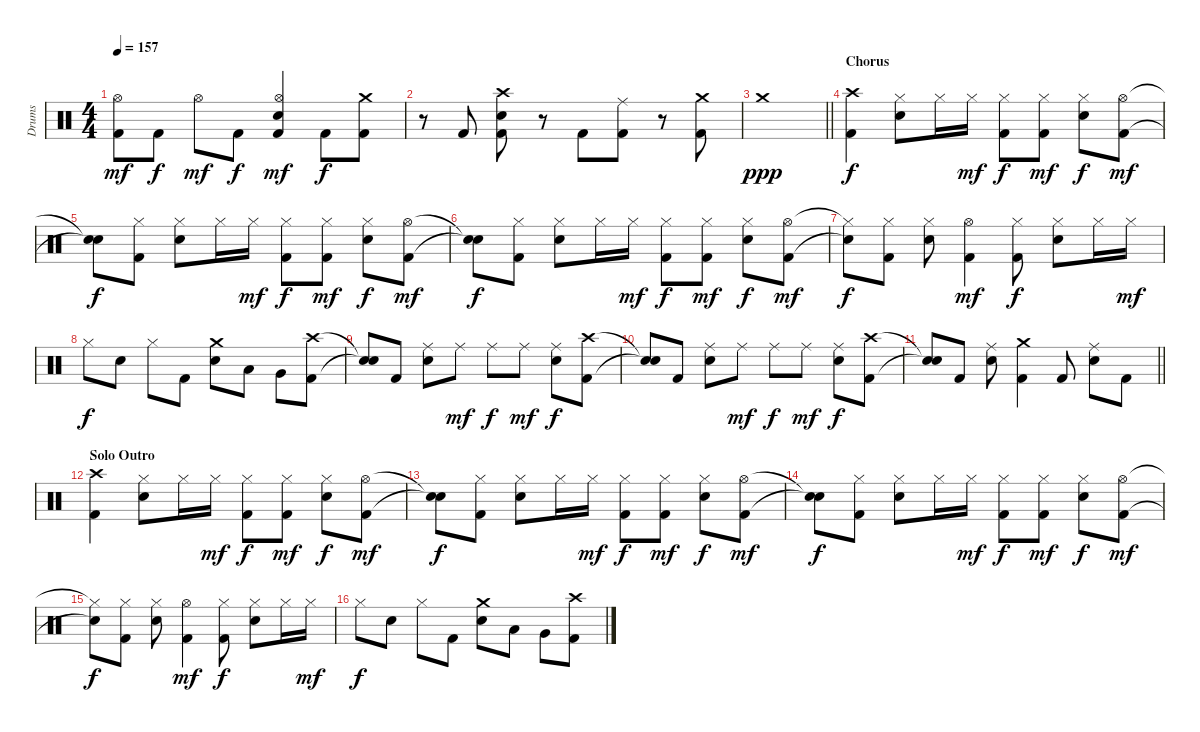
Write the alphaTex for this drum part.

\track ("Drums" "Drums") {instrument percussion}
\staff {score}
\articulation defaults
\ts (4 4)
\tempo 157
\clef neutral
\ks c
("Kick (hit) 2" "Hi-Hat (open)").8{dy mf} "Kick (hit) 2".8{dy f} "Hi-Hat (open)".8{dy mf} "Kick (hit) 2".8{dy f} ("Kick (hit) 2" "Hi-Hat (open)" "Electric Snare (hit)").4{dy mf} "Kick (hit) 2".8{dy f} ("Kick (hit) 2" "Crash medium (hit)").8 |
r.8 "Kick (hit) 2".8 ("Kick (hit) 2" "Crash high (hit)" "Electric Snare (hit)").8 r.8 "Kick (hit) 2".8 ("Kick (hit) 2" "Ride (middle)").8 r.8 ("Kick (hit) 2" "Crash medium (hit)").8 |
\barLineRight lightlight "Crash medium (hit)".1{dy ppp}
|
\section ("" "Chorus")
("Kick (hit) 2" "Crash high (hit)").4{dy f} ("Hi-Hat (closed)" "Electric Snare (hit)").8 "Hi-Hat (closed)".16 "Hi-Hat (closed)".16{dy mf} ("Kick (hit) 2" "Hi-Hat (closed)").8{dy f} ("Kick (hit) 2" "Hi-Hat (closed)").8{dy mf} ("Hi-Hat (closed)" "Electric Snare (hit)").8{dy f} ("Kick (hit) 2" "Hi-Hat (open)").8{dy mf} |
("Snare (hit)"{t} "Snare (hit)"{t}).8{dy f} ("Kick (hit) 2" "Hi-Hat (closed)").8 ("Hi-Hat (closed)" "Electric Snare (hit)").8 "Hi-Hat (closed)".16 "Hi-Hat (closed)".16{dy mf} ("Kick (hit) 2" "Hi-Hat (closed)").8{dy f} ("Kick (hit) 2" "Hi-Hat (closed)").8{dy mf} ("Hi-Hat (closed)" "Electric Snare (hit)").8{dy f} ("Kick (hit) 2" "Hi-Hat (open)").8{dy mf} |
("Snare (hit)"{t} "Snare (hit)"{t}).8{dy f} ("Kick (hit) 2" "Hi-Hat (closed)").8 ("Hi-Hat (closed)" "Electric Snare (hit)").8 "Hi-Hat (closed)".16 "Hi-Hat (closed)".16{dy mf} ("Kick (hit) 2" "Hi-Hat (closed)").8{dy f} ("Kick (hit) 2" "Hi-Hat (closed)").8{dy mf} ("Hi-Hat (closed)" "Electric Snare (hit)").8{dy f} ("Kick (hit) 2" "Hi-Hat (open)").8{dy mf} |
("Snare (hit)"{t} "Hi-Hat (closed)"{t}).8{dy f} ("Kick (hit) 2" "Hi-Hat (closed)").8 ("Hi-Hat (closed)" "Electric Snare (hit)").8 ("Kick (hit) 2" "Hi-Hat (open)").4{dy mf} ("Kick (hit) 2" "Hi-Hat (closed)").8{dy f} ("Hi-Hat (closed)" "Electric Snare (hit)").8 "Hi-Hat (closed)".16 "Hi-Hat (closed)".16{dy mf} |
"Hi-Hat (closed)".8{dy f} "Electric Snare (hit)".8 "Hi-Hat (closed)".8 "Kick (hit) 2".8 ("Crash medium (hit)" "Electric Snare (hit)").8 "Low Tom (hit)".8 "Very Low Tom (hit)".8 ("Kick (hit) 2" "Crash high (hit)").8 |
("Snare (hit)"{t} "Snare (hit)"{t}).8 "Kick (hit) 2".8 ("Ride (middle)" "Electric Snare (hit)").8 "Ride (middle)".8{dy mf} "Ride (middle)".8{dy f} "Ride (middle)".8{dy mf} ("Ride (middle)" "Electric Snare (hit)").8{dy f} ("Kick (hit) 2" "Crash high (hit)").8 |
("Snare (hit)"{t} "Snare (hit)"{t}).8 "Kick (hit) 2".8 ("Ride (middle)" "Electric Snare (hit)").8 "Ride (middle)".8{dy mf} "Ride (middle)".8{dy f} "Ride (middle)".8{dy mf} ("Ride (middle)" "Electric Snare (hit)").8{dy f} ("Kick (hit) 2" "Crash high (hit)").8 |
\barLineRight lightlight
("Snare (hit)"{t} "Snare (hit)"{t}).8 "Kick (hit) 2".8 ("Ride (middle)" "Electric Snare (hit)").8 ("Kick (hit) 2" "Crash medium (hit)").4 "Kick (hit) 2".8 ("Ride (middle)" "Electric Snare (hit)").8 "Kick (hit) 2".8 |
\section ("" "Solo Outro")
("Kick (hit) 2" "Crash high (hit)").4 ("Hi-Hat (closed)" "Electric Snare (hit)").8 "Hi-Hat (closed)".16 "Hi-Hat (closed)".16{dy mf} ("Kick (hit) 2" "Hi-Hat (closed)").8{dy f} ("Kick (hit) 2" "Hi-Hat (closed)").8{dy mf} ("Hi-Hat (closed)" "Electric Snare (hit)").8{dy f} ("Kick (hit) 2" "Hi-Hat (open)").8{dy mf} |
("Snare (hit)"{t} "Snare (hit)"{t}).8{dy f} ("Kick (hit) 2" "Hi-Hat (closed)").8 ("Hi-Hat (closed)" "Electric Snare (hit)").8 "Hi-Hat (closed)".16 "Hi-Hat (closed)".16{dy mf} ("Kick (hit) 2" "Hi-Hat (closed)").8{dy f} ("Kick (hit) 2" "Hi-Hat (closed)").8{dy mf} ("Hi-Hat (closed)" "Electric Snare (hit)").8{dy f} ("Kick (hit) 2" "Hi-Hat (open)").8{dy mf} |
("Snare (hit)"{t} "Snare (hit)"{t}).8{dy f} ("Kick (hit) 2" "Hi-Hat (closed)").8 ("Hi-Hat (closed)" "Electric Snare (hit)").8 "Hi-Hat (closed)".16 "Hi-Hat (closed)".16{dy mf} ("Kick (hit) 2" "Hi-Hat (closed)").8{dy f} ("Kick (hit) 2" "Hi-Hat (closed)").8{dy mf} ("Hi-Hat (closed)" "Electric Snare (hit)").8{dy f} ("Kick (hit) 2" "Hi-Hat (open)").8{dy mf} |
("Snare (hit)"{t} "Hi-Hat (closed)"{t}).8{dy f} ("Kick (hit) 2" "Hi-Hat (closed)").8 ("Hi-Hat (closed)" "Electric Snare (hit)").8 ("Kick (hit) 2" "Hi-Hat (open)").4{dy mf} ("Kick (hit) 2" "Hi-Hat (closed)").8{dy f} ("Hi-Hat (closed)" "Electric Snare (hit)").8 "Hi-Hat (closed)".16 "Hi-Hat (closed)".16{dy mf} |
"Hi-Hat (closed)".8{dy f} "Electric Snare (hit)".8 "Hi-Hat (closed)".8 "Kick (hit) 2".8 ("Crash medium (hit)" "Electric Snare (hit)").8 "Low Tom (hit)".8 "Very Low Tom (hit)".8 ("Kick (hit) 2" "Crash high (hit)").8
